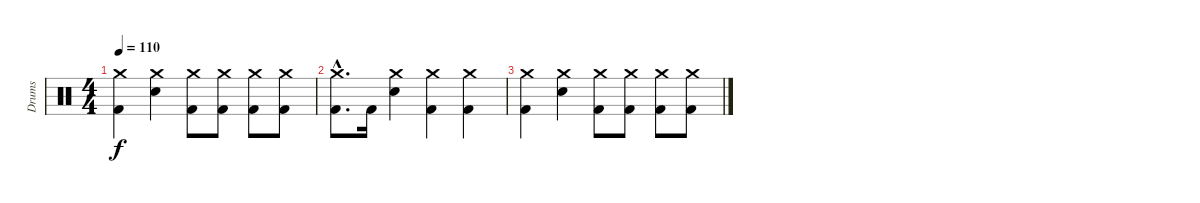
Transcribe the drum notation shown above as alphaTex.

\track ("Drums" "Drums") {instrument percussion}
\staff {score}
\articulation defaults
\ts (4 4)
\tempo 110
\clef neutral
\ks c
("Kick (hit) 2" "Crash medium (hit)").4{dy f} ("Electric Snare (hit)" "Crash medium (hit)").4 ("Kick (hit) 2" "Crash medium (hit)").8 ("Kick (hit) 2" "Crash medium (hit)").8 ("Kick (hit) 2" "Crash medium (hit)").8 ("Kick (hit) 2" "Crash medium (hit)").8 |
("Kick (hit) 2"{hac} "Crash medium (hit)"{hac}).8{d} "Kick (hit) 2".16 ("Electric Snare (hit)" "Crash medium (hit)").4 ("Kick (hit) 2" "Crash medium (hit)").4 ("Kick (hit) 2" "Crash medium (hit)").4 |
("Kick (hit) 2" "Crash medium (hit)").4 ("Electric Snare (hit)" "Crash medium (hit)").4 ("Kick (hit) 2" "Crash medium (hit)").8 ("Kick (hit) 2" "Crash medium (hit)").8 ("Kick (hit) 2" "Crash medium (hit)").8 ("Kick (hit) 2" "Crash medium (hit)").8
